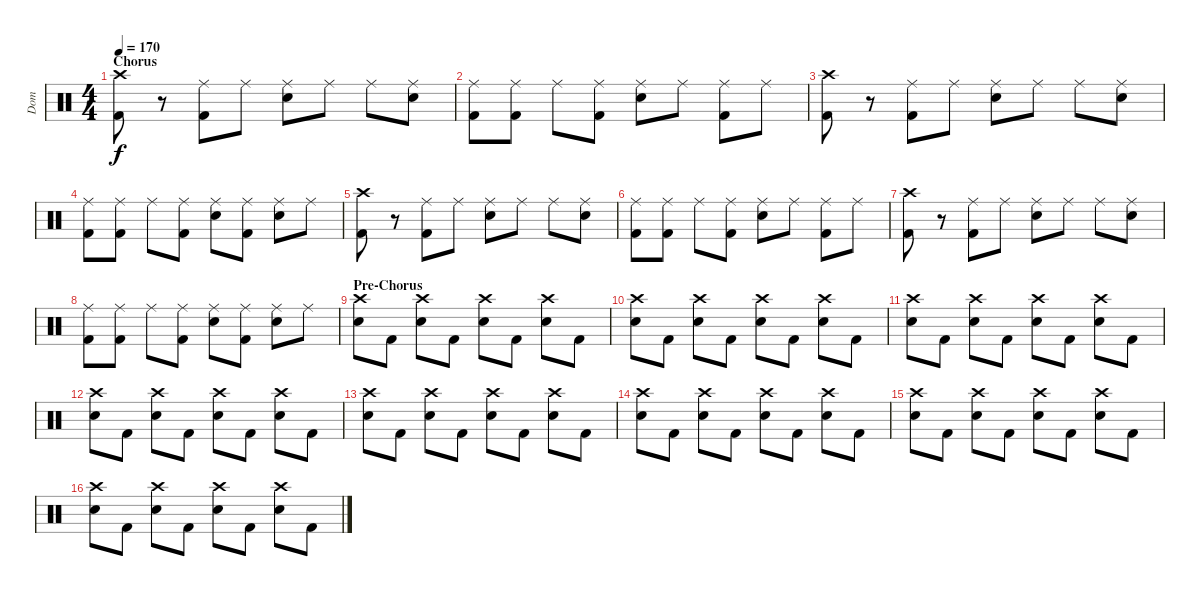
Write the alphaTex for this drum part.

\track ("Dom" "Dom") {instrument percussion}
\staff {score}
\articulation defaults
\ts (4 4)
\section ("" "Chorus")
\tempo 170
\clef neutral
\ks c
("Crash high (hit)" "Kick (hit) 2").8{dy f} r.8 ("Ride (middle)" "Kick (hit) 2").8 "Ride (middle)".8 ("Ride (middle)" "Electric Snare (hit)").8 "Ride (middle)".8 "Ride (middle)".8 ("Ride (middle)" "Electric Snare (hit)").8 |
("Ride (middle)" "Kick (hit) 2").8 ("Ride (middle)" "Kick (hit) 2").8 "Ride (middle)".8 ("Ride (middle)" "Kick (hit) 2").8 ("Ride (middle)" "Electric Snare (hit)").8 "Ride (middle)".8 ("Ride (middle)" "Kick (hit) 2").8 "Ride (middle)".8 |
("Crash high (hit)" "Kick (hit) 2").8 r.8 ("Ride (middle)" "Kick (hit) 2").8 "Ride (middle)".8 ("Ride (middle)" "Electric Snare (hit)").8 "Ride (middle)".8 "Ride (middle)".8 ("Ride (middle)" "Electric Snare (hit)").8 |
("Ride (middle)" "Kick (hit) 2").8 ("Ride (middle)" "Kick (hit) 2").8 "Ride (middle)".8 ("Ride (middle)" "Kick (hit) 2").8 ("Ride (middle)" "Electric Snare (hit)").8 ("Ride (middle)" "Kick (hit) 2").8 ("Ride (middle)" "Electric Snare (hit)").8 "Ride (middle)".8 |
("Crash high (hit)" "Kick (hit) 2").8 r.8 ("Ride (middle)" "Kick (hit) 2").8 "Ride (middle)".8 ("Ride (middle)" "Electric Snare (hit)").8 "Ride (middle)".8 "Ride (middle)".8 ("Ride (middle)" "Electric Snare (hit)").8 |
("Ride (middle)" "Kick (hit) 2").8 ("Ride (middle)" "Kick (hit) 2").8 "Ride (middle)".8 ("Ride (middle)" "Kick (hit) 2").8 ("Ride (middle)" "Electric Snare (hit)").8 "Ride (middle)".8 ("Ride (middle)" "Kick (hit) 2").8 "Ride (middle)".8 |
("Crash high (hit)" "Kick (hit) 2").8 r.8 ("Ride (middle)" "Kick (hit) 2").8 "Ride (middle)".8 ("Ride (middle)" "Electric Snare (hit)").8 "Ride (middle)".8 "Ride (middle)".8 ("Ride (middle)" "Electric Snare (hit)").8 |
("Ride (middle)" "Kick (hit) 2").8 ("Ride (middle)" "Kick (hit) 2").8 "Ride (middle)".8 ("Ride (middle)" "Kick (hit) 2").8 ("Ride (middle)" "Electric Snare (hit)").8 ("Ride (middle)" "Kick (hit) 2").8 ("Ride (middle)" "Electric Snare (hit)").8 "Ride (middle)".8 |
\section ("" "Pre-Chorus")
("Crash high (hit)" "Electric Snare (hit)").8 "Kick (hit) 2".8 ("Crash high (hit)" "Electric Snare (hit)").8 "Kick (hit) 2".8 ("Crash high (hit)" "Electric Snare (hit)").8 "Kick (hit) 2".8 ("Crash high (hit)" "Electric Snare (hit)").8 "Kick (hit) 2".8 |
("Crash high (hit)" "Electric Snare (hit)").8 "Kick (hit) 2".8 ("Crash high (hit)" "Electric Snare (hit)").8 "Kick (hit) 2".8 ("Crash high (hit)" "Electric Snare (hit)").8 "Kick (hit) 2".8 ("Crash high (hit)" "Electric Snare (hit)").8 "Kick (hit) 2".8 |
("Crash high (hit)" "Electric Snare (hit)").8 "Kick (hit) 2".8 ("Crash high (hit)" "Electric Snare (hit)").8 "Kick (hit) 2".8 ("Crash high (hit)" "Electric Snare (hit)").8 "Kick (hit) 2".8 ("Crash high (hit)" "Electric Snare (hit)").8 "Kick (hit) 2".8 |
("Crash high (hit)" "Electric Snare (hit)").8 "Kick (hit) 2".8 ("Crash high (hit)" "Electric Snare (hit)").8 "Kick (hit) 2".8 ("Crash high (hit)" "Electric Snare (hit)").8 "Kick (hit) 2".8 ("Crash high (hit)" "Electric Snare (hit)").8 "Kick (hit) 2".8 |
("Crash high (hit)" "Electric Snare (hit)").8 "Kick (hit) 2".8 ("Crash high (hit)" "Electric Snare (hit)").8 "Kick (hit) 2".8 ("Crash high (hit)" "Electric Snare (hit)").8 "Kick (hit) 2".8 ("Crash high (hit)" "Electric Snare (hit)").8 "Kick (hit) 2".8 |
("Crash high (hit)" "Electric Snare (hit)").8 "Kick (hit) 2".8 ("Crash high (hit)" "Electric Snare (hit)").8 "Kick (hit) 2".8 ("Crash high (hit)" "Electric Snare (hit)").8 "Kick (hit) 2".8 ("Crash high (hit)" "Electric Snare (hit)").8 "Kick (hit) 2".8 |
("Crash high (hit)" "Electric Snare (hit)").8 "Kick (hit) 2".8 ("Crash high (hit)" "Electric Snare (hit)").8 "Kick (hit) 2".8 ("Crash high (hit)" "Electric Snare (hit)").8 "Kick (hit) 2".8 ("Crash high (hit)" "Electric Snare (hit)").8 "Kick (hit) 2".8 |
("Crash high (hit)" "Electric Snare (hit)").8 "Kick (hit) 2".8 ("Crash high (hit)" "Electric Snare (hit)").8 "Kick (hit) 2".8 ("Crash high (hit)" "Electric Snare (hit)").8 "Kick (hit) 2".8 ("Crash high (hit)" "Electric Snare (hit)").8 "Kick (hit) 2".8
